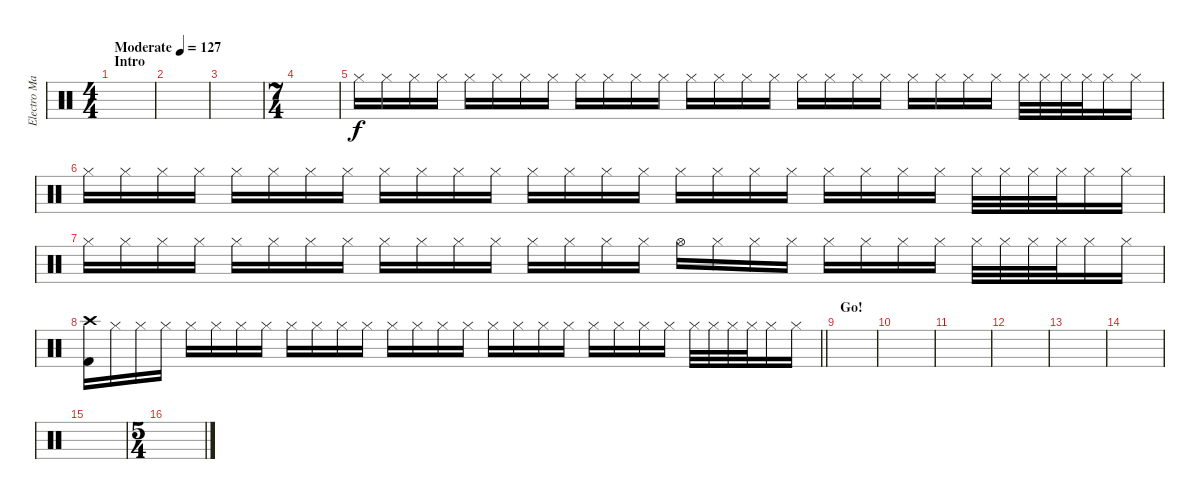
\track ("Electro Mastelotto" "Electro Ma") {instrument percussion}
\staff {score}
\articulation defaults
\ts (4 4)
\section ("" "Intro")
\tempo (127 "Moderate")
\clef neutral
\ks c
|
|
|
\ts (7 4)
|
"Hi-Hat (closed)".16 "Hi-Hat (closed)".16 "Hi-Hat (closed)".16 "Hi-Hat (closed)".16 "Hi-Hat (closed)".16 "Hi-Hat (closed)".16 "Hi-Hat (closed)".16 "Hi-Hat (closed)".16 "Hi-Hat (closed)".16 "Hi-Hat (closed)".16 "Hi-Hat (closed)".16 "Hi-Hat (closed)".16 "Hi-Hat (closed)".16 "Hi-Hat (closed)".16 "Hi-Hat (closed)".16 "Hi-Hat (closed)".16 "Hi-Hat (closed)".16 "Hi-Hat (closed)".16 "Hi-Hat (closed)".16 "Hi-Hat (closed)".16 "Hi-Hat (closed)".16 "Hi-Hat (closed)".16 "Hi-Hat (closed)".16 "Hi-Hat (closed)".16 "Hi-Hat (closed)".32 "Hi-Hat (closed)".32 "Hi-Hat (closed)".32 "Hi-Hat (closed)".32 "Hi-Hat (closed)".16 "Hi-Hat (closed)".16 |
"Hi-Hat (closed)".16 "Hi-Hat (closed)".16 "Hi-Hat (closed)".16 "Hi-Hat (closed)".16 "Hi-Hat (closed)".16 "Hi-Hat (closed)".16 "Hi-Hat (closed)".16 "Hi-Hat (closed)".16 "Hi-Hat (closed)".16 "Hi-Hat (closed)".16 "Hi-Hat (closed)".16 "Hi-Hat (closed)".16 "Hi-Hat (closed)".16 "Hi-Hat (closed)".16 "Hi-Hat (closed)".16 "Hi-Hat (closed)".16 "Hi-Hat (closed)".16 "Hi-Hat (closed)".16 "Hi-Hat (closed)".16 "Hi-Hat (closed)".16 "Hi-Hat (closed)".16 "Hi-Hat (closed)".16 "Hi-Hat (closed)".16 "Hi-Hat (closed)".16 "Hi-Hat (closed)".32 "Hi-Hat (closed)".32 "Hi-Hat (closed)".32 "Hi-Hat (closed)".32 "Hi-Hat (closed)".16 "Hi-Hat (closed)".16 |
"Hi-Hat (closed)".16 "Hi-Hat (closed)".16 "Hi-Hat (closed)".16 "Hi-Hat (closed)".16 "Hi-Hat (closed)".16 "Hi-Hat (closed)".16 "Hi-Hat (closed)".16 "Hi-Hat (closed)".16 "Hi-Hat (closed)".16 "Hi-Hat (closed)".16 "Hi-Hat (closed)".16 "Hi-Hat (closed)".16 "Hi-Hat (closed)".16 "Hi-Hat (closed)".16 "Hi-Hat (closed)".16 "Hi-Hat (closed)".16 "Hi-Hat (open)".16 "Hi-Hat (closed)".16 "Hi-Hat (closed)".16 "Hi-Hat (closed)".16 "Hi-Hat (closed)".16 "Hi-Hat (closed)".16 "Hi-Hat (closed)".16 "Hi-Hat (closed)".16 "Hi-Hat (closed)".32 "Hi-Hat (closed)".32 "Hi-Hat (closed)".32 "Hi-Hat (closed)".32 "Hi-Hat (closed)".16 "Hi-Hat (closed)".16 |
\barLineRight lightlight
("Crash high (hit)" "Kick (hit) 2").16 "Hi-Hat (closed)".16 "Hi-Hat (closed)".16 "Hi-Hat (closed)".16 "Hi-Hat (closed)".16 "Hi-Hat (closed)".16 "Hi-Hat (closed)".16 "Hi-Hat (closed)".16 "Hi-Hat (closed)".16 "Hi-Hat (closed)".16 "Hi-Hat (closed)".16 "Hi-Hat (closed)".16 "Hi-Hat (closed)".16 "Hi-Hat (closed)".16 "Hi-Hat (closed)".16 "Hi-Hat (closed)".16 "Hi-Hat (closed)".16 "Hi-Hat (closed)".16 "Hi-Hat (closed)".16 "Hi-Hat (closed)".16 "Hi-Hat (closed)".16 "Hi-Hat (closed)".16 "Hi-Hat (closed)".16 "Hi-Hat (closed)".16 "Hi-Hat (closed)".32 "Hi-Hat (closed)".32 "Hi-Hat (closed)".32 "Hi-Hat (closed)".32 "Hi-Hat (closed)".16 "Hi-Hat (closed)".16 |
\section ("" "Go!")
|
|
|
|
|
|
|
\ts (5 4)
